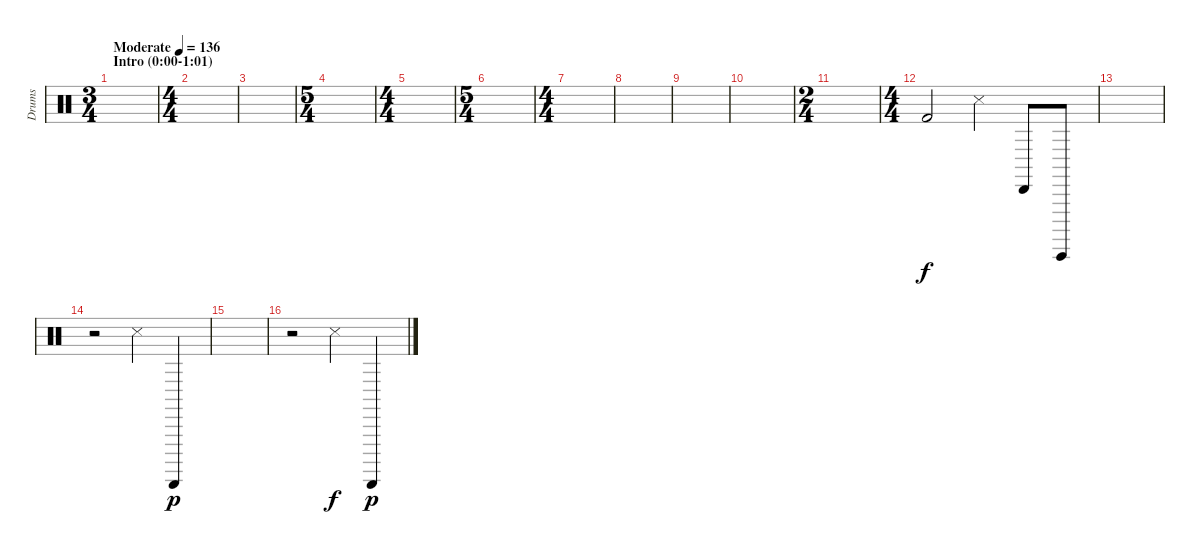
\track ("Drums" "Drums") {instrument percussion}
\staff {score}
\articulation defaults
\ts (3 4)
\section ("" "Intro (0:00-1:01)")
\tempo (136 "Moderate")
\clef neutral
\ks c
|
\ts (4 4)
|
|
\ts (5 4)
|
\ts (4 4)
|
\ts (5 4)
|
\ts (4 4)
|
|
|
|
\ts (2 4)
|
\ts (4 4)
"Kick (hit) 2".2 "Snare (side stick) 3".4 "Cabasa (hit)".8 "Guiro (hit)".8 |
|
r.2 "Snare (side stick) 3".4 "Guiro (scrap-return)".4{dy p} |
|
r.2 "Snare (side stick) 3".4{dy f} "Guiro (scrap-return)".4{dy p}
